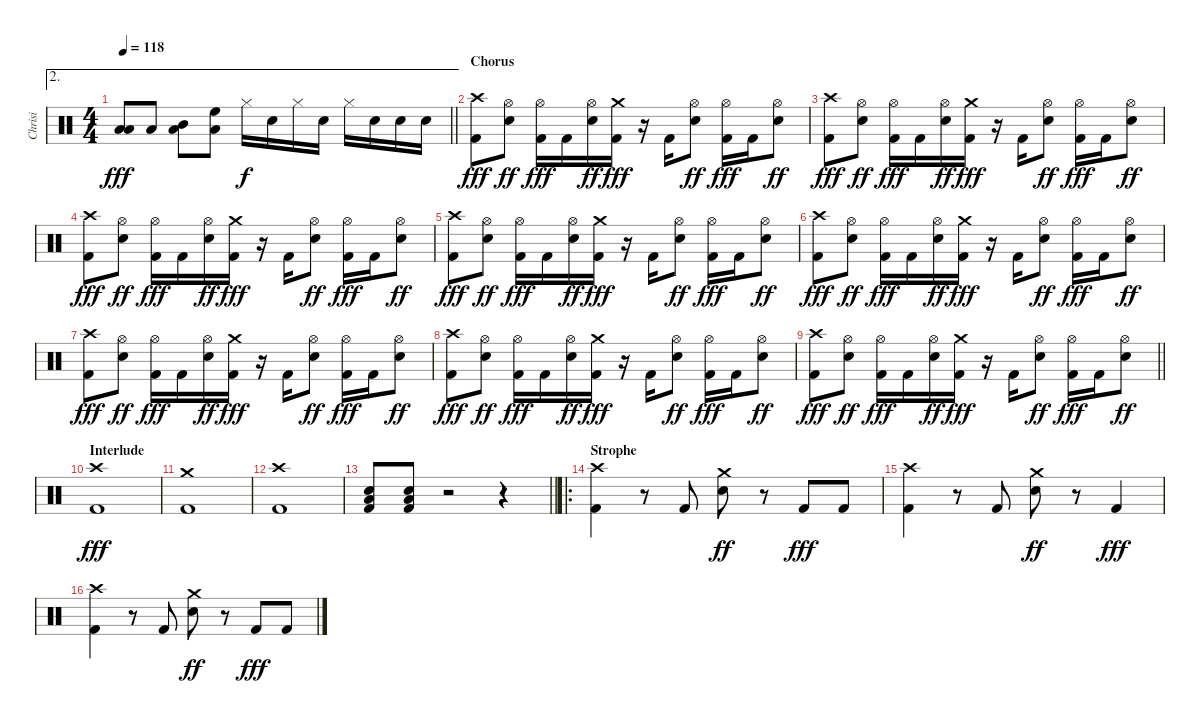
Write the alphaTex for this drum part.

\track ("Chrisi" "Chrisi") {instrument percussion}
\staff {score}
\articulation defaults
\ae 2
\ts (4 4)
\tempo 118
\clef neutral
\barLineRight lightlight
\ks c
("Low Floor Tom (hit)" "Low Floor Tom (hit)").8{dy fff} "Low Floor Tom (hit)".8 ("Mid Tom (hit)" "Low Floor Tom (hit)").8 ("High Floor Tom (hit)" "Low Floor Tom (hit)").8 "Hi-Hat (closed)".16{dy f} "Electric Snare (hit)".16 "Hi-Hat (closed)".16 "Electric Snare (hit)".16 "Hi-Hat (closed)".16 "Electric Snare (hit)".16 "Electric Snare (hit)".16 "Electric Snare (hit)".16 |
\section ("" "Chorus")
("Crash high (hit)" "Kick (hit) 2").8{dy fff} ("Hi-Hat (open)" "Electric Snare (hit)").8{dy ff} ("Hi-Hat (open)" "Kick (hit) 2").16{dy fff} "Kick (hit) 2".16 ("Hi-Hat (open)" "Electric Snare (hit)").16{dy ff} ("Crash medium (hit)" "Kick (hit) 2").16{dy fff} r.16 "Kick (hit) 2".16 ("Hi-Hat (open)" "Electric Snare (hit)").8{dy ff} ("Hi-Hat (open)" "Kick (hit) 2").16{dy fff} "Kick (hit) 2".16 ("Hi-Hat (open)" "Electric Snare (hit)").8{dy ff} |
("Crash high (hit)" "Kick (hit) 2").8{dy fff} ("Hi-Hat (open)" "Electric Snare (hit)").8{dy ff} ("Hi-Hat (open)" "Kick (hit) 2").16{dy fff} "Kick (hit) 2".16 ("Hi-Hat (open)" "Electric Snare (hit)").16{dy ff} ("Crash medium (hit)" "Kick (hit) 2").16{dy fff} r.16 "Kick (hit) 2".16 ("Hi-Hat (open)" "Electric Snare (hit)").8{dy ff} ("Hi-Hat (open)" "Kick (hit) 2").16{dy fff} "Kick (hit) 2".16 ("Hi-Hat (open)" "Electric Snare (hit)").8{dy ff} |
("Crash high (hit)" "Kick (hit) 2").8{dy fff} ("Hi-Hat (open)" "Electric Snare (hit)").8{dy ff} ("Hi-Hat (open)" "Kick (hit) 2").16{dy fff} "Kick (hit) 2".16 ("Hi-Hat (open)" "Electric Snare (hit)").16{dy ff} ("Crash medium (hit)" "Kick (hit) 2").16{dy fff} r.16 "Kick (hit) 2".16 ("Hi-Hat (open)" "Electric Snare (hit)").8{dy ff} ("Hi-Hat (open)" "Kick (hit) 2").16{dy fff} "Kick (hit) 2".16 ("Hi-Hat (open)" "Electric Snare (hit)").8{dy ff} |
("Crash high (hit)" "Kick (hit) 2").8{dy fff} ("Hi-Hat (open)" "Electric Snare (hit)").8{dy ff} ("Hi-Hat (open)" "Kick (hit) 2").16{dy fff} "Kick (hit) 2".16 ("Hi-Hat (open)" "Electric Snare (hit)").16{dy ff} ("Crash medium (hit)" "Kick (hit) 2").16{dy fff} r.16 "Kick (hit) 2".16 ("Hi-Hat (open)" "Electric Snare (hit)").8{dy ff} ("Hi-Hat (open)" "Kick (hit) 2").16{dy fff} "Kick (hit) 2".16 ("Hi-Hat (open)" "Electric Snare (hit)").8{dy ff} |
("Crash high (hit)" "Kick (hit) 2").8{dy fff} ("Hi-Hat (open)" "Electric Snare (hit)").8{dy ff} ("Hi-Hat (open)" "Kick (hit) 2").16{dy fff} "Kick (hit) 2".16 ("Hi-Hat (open)" "Electric Snare (hit)").16{dy ff} ("Crash medium (hit)" "Kick (hit) 2").16{dy fff} r.16 "Kick (hit) 2".16 ("Hi-Hat (open)" "Electric Snare (hit)").8{dy ff} ("Hi-Hat (open)" "Kick (hit) 2").16{dy fff} "Kick (hit) 2".16 ("Hi-Hat (open)" "Electric Snare (hit)").8{dy ff} |
("Crash high (hit)" "Kick (hit) 2").8{dy fff} ("Hi-Hat (open)" "Electric Snare (hit)").8{dy ff} ("Hi-Hat (open)" "Kick (hit) 2").16{dy fff} "Kick (hit) 2".16 ("Hi-Hat (open)" "Electric Snare (hit)").16{dy ff} ("Crash medium (hit)" "Kick (hit) 2").16{dy fff} r.16 "Kick (hit) 2".16 ("Hi-Hat (open)" "Electric Snare (hit)").8{dy ff} ("Hi-Hat (open)" "Kick (hit) 2").16{dy fff} "Kick (hit) 2".16 ("Hi-Hat (open)" "Electric Snare (hit)").8{dy ff} |
("Crash high (hit)" "Kick (hit) 2").8{dy fff} ("Hi-Hat (open)" "Electric Snare (hit)").8{dy ff} ("Hi-Hat (open)" "Kick (hit) 2").16{dy fff} "Kick (hit) 2".16 ("Hi-Hat (open)" "Electric Snare (hit)").16{dy ff} ("Crash medium (hit)" "Kick (hit) 2").16{dy fff} r.16 "Kick (hit) 2".16 ("Hi-Hat (open)" "Electric Snare (hit)").8{dy ff} ("Hi-Hat (open)" "Kick (hit) 2").16{dy fff} "Kick (hit) 2".16 ("Hi-Hat (open)" "Electric Snare (hit)").8{dy ff} |
\barLineRight lightlight
("Crash high (hit)" "Kick (hit) 2").8{dy fff} ("Hi-Hat (open)" "Electric Snare (hit)").8{dy ff} ("Hi-Hat (open)" "Kick (hit) 2").16{dy fff} "Kick (hit) 2".16 ("Hi-Hat (open)" "Electric Snare (hit)").16{dy ff} ("Crash medium (hit)" "Kick (hit) 2").16{dy fff} r.16 "Kick (hit) 2".16 ("Hi-Hat (open)" "Electric Snare (hit)").8{dy ff} ("Hi-Hat (open)" "Kick (hit) 2").16{dy fff} "Kick (hit) 2".16 ("Hi-Hat (open)" "Electric Snare (hit)").8{dy ff} |
\section ("" "Interlude")
("Crash high (hit)" "Kick (hit) 2").1{dy fff} |
("Crash medium (hit)" "Kick (hit) 2").1 |
("Crash high (hit)" "Kick (hit) 2").1 |
\barLineRight lightlight
("Low Floor Tom (hit)" "Electric Snare (hit)" "Kick (hit) 2").8 ("Low Floor Tom (hit)" "Electric Snare (hit)" "Kick (hit) 2").8 r.2 r.4 |
\ro
\section ("" "Strophe")
("Crash high (hit)" "Kick (hit) 2").4 r.8 "Kick (hit) 2".8 ("Crash medium (hit)" "Electric Snare (hit)").8{dy ff} r.8 "Kick (hit) 2".8{dy fff} "Kick (hit) 2".8 |
("Crash high (hit)" "Kick (hit) 2").4 r.8 "Kick (hit) 2".8 ("Crash medium (hit)" "Electric Snare (hit)").8{dy ff} r.8 "Kick (hit) 2".4{dy fff} |
("Crash high (hit)" "Kick (hit) 2").4 r.8 "Kick (hit) 2".8 ("Crash medium (hit)" "Electric Snare (hit)").8{dy ff} r.8 "Kick (hit) 2".8{dy fff} "Kick (hit) 2".8
